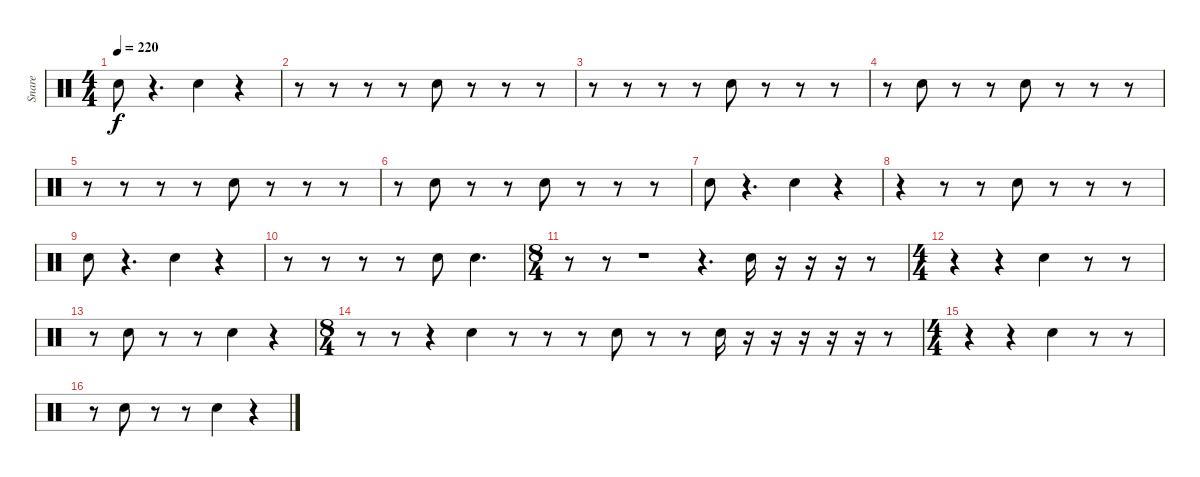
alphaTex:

\track ("Snare" "Snare") {instrument percussion}
\staff {score}
\articulation defaults
\ts (4 4)
\tempo 220
\clef neutral
\ks c "Electric Snare (hit)".8{dy f}
r.4{d} "Electric Snare (hit)".4 r.4 |
r.8 r.8 r.8 r.8 "Electric Snare (hit)".8 r.8 r.8 r.8 |
r.8 r.8 r.8 r.8 "Electric Snare (hit)".8 r.8 r.8 r.8 |
r.8 "Electric Snare (hit)".8 r.8 r.8 "Electric Snare (hit)".8 r.8 r.8 r.8 |
r.8 r.8 r.8 r.8 "Electric Snare (hit)".8 r.8 r.8 r.8 |
r.8 "Electric Snare (hit)".8 r.8 r.8 "Electric Snare (hit)".8 r.8 r.8 r.8 |
"Electric Snare (hit)".8 r.4{d} "Electric Snare (hit)".4 r.4 |
r.4 r.8 r.8 "Electric Snare (hit)".8 r.8 r.8 r.8 |
"Electric Snare (hit)".8 r.4{d} "Electric Snare (hit)".4 r.4 |
r.8 r.8 r.8 r.8 "Electric Snare (hit)".8 "Electric Snare (hit)".4{d} |
\ts (8 4)
r.8 r.8 r.1 r.4{d} "Electric Snare (hit)".16 r.16 r.16 r.16 r.8 |
\ts (4 4)
r.4 r.4 "Electric Snare (hit)".4 r.8 r.8 |
r.8 "Electric Snare (hit)".8 r.8 r.8 "Electric Snare (hit)".4 r.4 |
\ts (8 4)
r.8 r.8 r.4 "Electric Snare (hit)".4 r.8 r.8 r.8 "Electric Snare (hit)".8 r.8 r.8 "Electric Snare (hit)".16 r.16 r.16 r.16 r.16 r.16 r.8 |
\ts (4 4)
r.4 r.4 "Electric Snare (hit)".4 r.8 r.8 |
r.8 "Electric Snare (hit)".8 r.8 r.8 "Electric Snare (hit)".4 r.4
